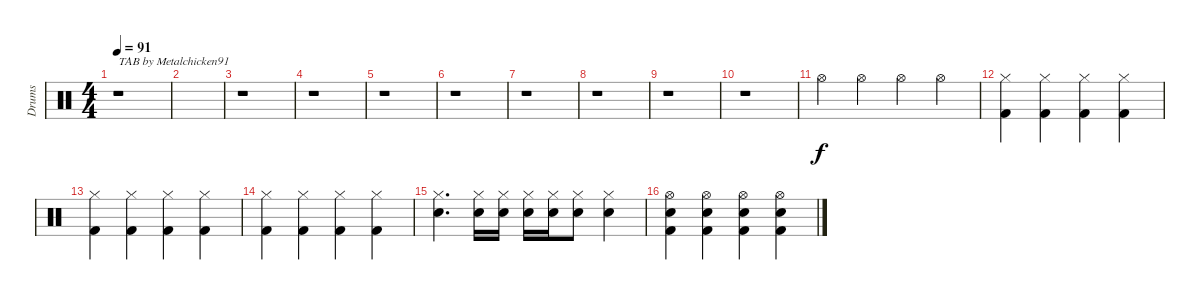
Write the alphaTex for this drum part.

\track ("Drums" "Drums") {instrument percussion}
\staff {score}
\articulation defaults
\ts (4 4)
\tempo 91
\clef neutral
\ks c
r.1{txt "TAB by Metalchicken91" dy f} |
|
r.1 |
r.1 |
r.1 |
r.1 |
r.1 |
r.1 |
r.1 |
r.1 |
"Hi-Hat (open)".4 "Hi-Hat (open)".4 "Hi-Hat (open)".4 "Hi-Hat (open)".4 |
("Hi-Hat (closed)" "Kick (hit) 2").4 ("Hi-Hat (closed)" "Kick (hit) 2").4 ("Hi-Hat (closed)" "Kick (hit) 2").4 ("Hi-Hat (closed)" "Kick (hit) 2").4 |
("Hi-Hat (closed)" "Kick (hit) 2").4 ("Hi-Hat (closed)" "Kick (hit) 2").4 ("Hi-Hat (closed)" "Kick (hit) 2").4 ("Hi-Hat (closed)" "Kick (hit) 2").4 |
("Hi-Hat (closed)" "Kick (hit) 2").4 ("Hi-Hat (closed)" "Kick (hit) 2").4 ("Hi-Hat (closed)" "Kick (hit) 2").4 ("Hi-Hat (closed)" "Kick (hit) 2").4 |
("Hi-Hat (closed)" "Snare (hit) 2").4{d} ("Hi-Hat (closed)" "Snare (hit) 2").16 ("Hi-Hat (closed)" "Snare (hit) 2").16 ("Hi-Hat (closed)" "Snare (hit) 2").16 ("Hi-Hat (closed)" "Snare (hit) 2").16 ("Hi-Hat (closed)" "Snare (hit) 2").8 ("Hi-Hat (closed)" "Snare (hit) 2").4 |
("Hi-Hat (open)" "Snare (hit) 2" "Kick (hit) 2").4 ("Hi-Hat (open)" "Snare (hit) 2" "Kick (hit) 2").4 ("Hi-Hat (open)" "Snare (hit) 2" "Kick (hit) 2").4 ("Hi-Hat (open)" "Snare (hit) 2" "Kick (hit) 2").4
